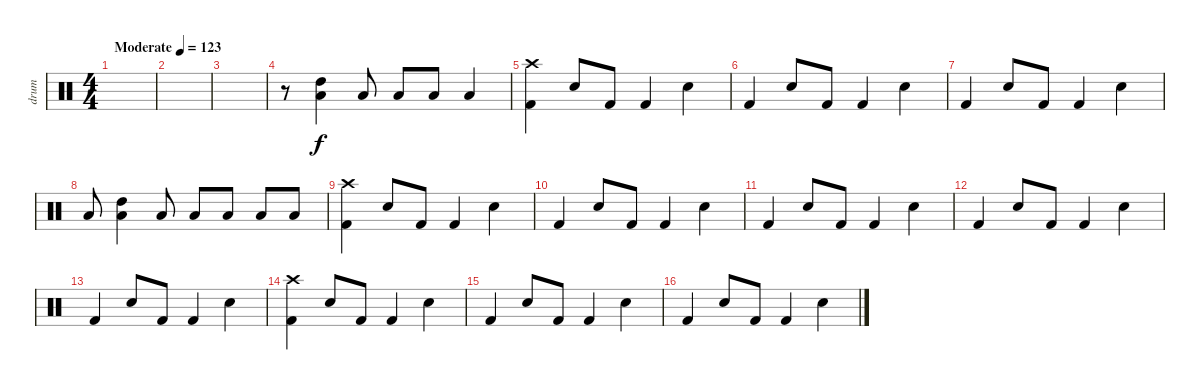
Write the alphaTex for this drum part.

\track ("drum" "drum") {instrument percussion}
\staff {score}
\articulation defaults
\ts (4 4)
\tempo (123 "Moderate")
\clef neutral
\ks c
|
|
|
r.8 ("Low Tom (hit)" "High Tom (hit)").4 "Low Tom (hit)".8 "Low Tom (hit)".8 "Low Tom (hit)".8 "Low Tom (hit)".4 |
("Crash high (hit)" "Kick (hit) 2").4 "Snare (hit) 2".8 "Kick (hit) 2".8 "Kick (hit) 2".4 "Snare (hit) 2".4 |
"Kick (hit) 2".4 "Snare (hit) 2".8 "Kick (hit) 2".8 "Kick (hit) 2".4 "Snare (hit) 2".4 |
"Kick (hit) 2".4 "Snare (hit) 2".8 "Kick (hit) 2".8 "Kick (hit) 2".4 "Snare (hit) 2".4 |
"Low Tom (hit)".8 ("Low Tom (hit)" "High Tom (hit)").4 "Low Tom (hit)".8 "Low Tom (hit)".8 "Low Tom (hit)".8 "Low Tom (hit)".8 "Low Tom (hit)".8 |
("Crash high (hit)" "Kick (hit) 2").4 "Snare (hit) 2".8 "Kick (hit) 2".8 "Kick (hit) 2".4 "Snare (hit) 2".4 |
"Kick (hit) 2".4 "Snare (hit) 2".8 "Kick (hit) 2".8 "Kick (hit) 2".4 "Snare (hit) 2".4 |
"Kick (hit) 2".4 "Snare (hit) 2".8 "Kick (hit) 2".8 "Kick (hit) 2".4 "Snare (hit) 2".4 |
"Kick (hit) 2".4 "Snare (hit) 2".8 "Kick (hit) 2".8 "Kick (hit) 2".4 "Snare (hit) 2".4 |
"Kick (hit) 2".4 "Snare (hit) 2".8 "Kick (hit) 2".8 "Kick (hit) 2".4 "Snare (hit) 2".4 |
("Kick (hit) 2" "Crash high (hit)").4 "Snare (hit) 2".8 "Kick (hit) 2".8 "Kick (hit) 2".4 "Snare (hit) 2".4 |
"Kick (hit) 2".4 "Snare (hit) 2".8 "Kick (hit) 2".8 "Kick (hit) 2".4 "Snare (hit) 2".4 |
"Kick (hit) 2".4 "Snare (hit) 2".8 "Kick (hit) 2".8 "Kick (hit) 2".4 "Snare (hit) 2".4
